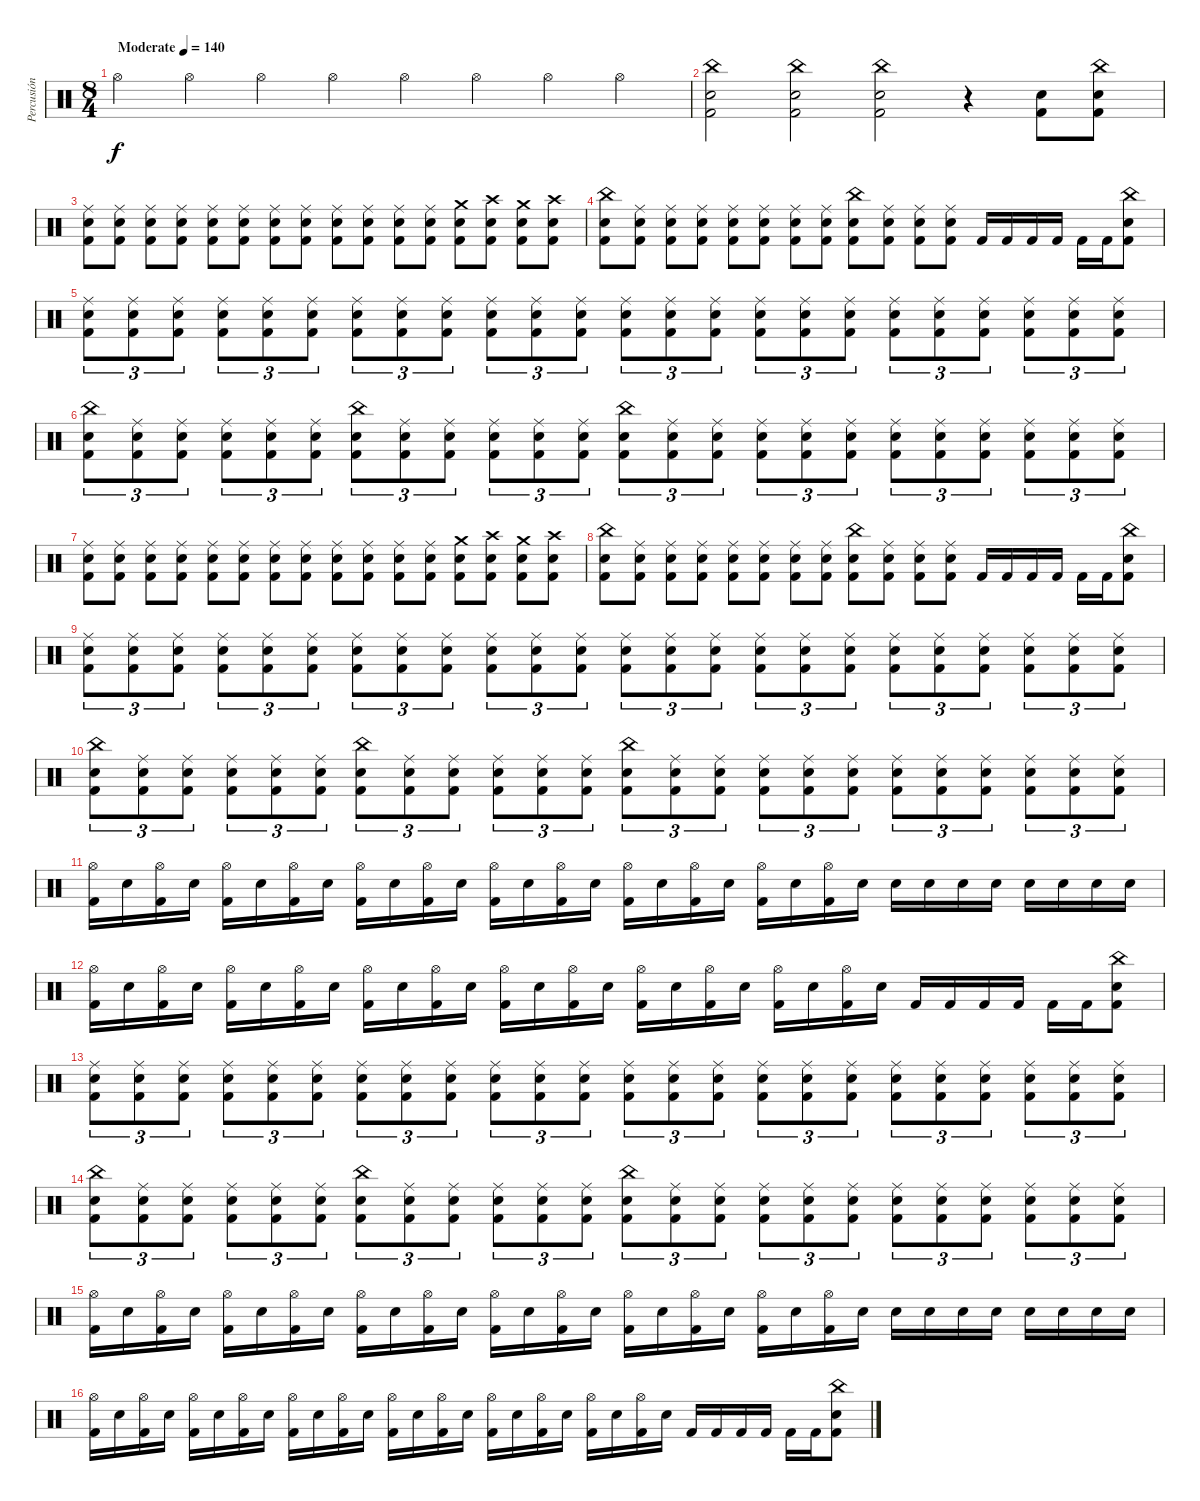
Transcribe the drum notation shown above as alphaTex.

\track ("Percusión" "Percusión") {instrument percussion}
\staff {score}
\articulation defaults
\ts (8 4)
\tempo (140 "Moderate")
\clef neutral
\ks c "Hi-Hat (open)".4{dy f} "Hi-Hat (open)".4 "Hi-Hat (open)".4 "Hi-Hat (open)".4 "Hi-Hat (open)".4 "Hi-Hat (open)".4 "Hi-Hat (open)".4 "Hi-Hat (open)".4
|
("China (hit)" "Electric Snare (hit)" "Kick (hit) 2").2 ("China (hit)" "Electric Snare (hit)" "Kick (hit) 2").2 ("China (hit)" "Electric Snare (hit)" "Kick (hit) 2").2 r.4 ("Electric Snare (hit)" "Kick (hit) 2").8 ("China (hit)" "Electric Snare (hit)" "Kick (hit) 2").8 |
("Ride (middle)" "Electric Snare (hit)" "Kick (hit) 2").8 ("Ride (middle)" "Electric Snare (hit)" "Kick (hit) 2").8 ("Ride (middle)" "Electric Snare (hit)" "Kick (hit) 2").8 ("Ride (middle)" "Electric Snare (hit)" "Kick (hit) 2").8 ("Ride (middle)" "Electric Snare (hit)" "Kick (hit) 2").8 ("Ride (middle)" "Electric Snare (hit)" "Kick (hit) 2").8 ("Ride (middle)" "Electric Snare (hit)" "Kick (hit) 2").8 ("Ride (middle)" "Electric Snare (hit)" "Kick (hit) 2").8 ("Ride (middle)" "Electric Snare (hit)" "Kick (hit) 2").8 ("Ride (middle)" "Electric Snare (hit)" "Kick (hit) 2").8 ("Ride (middle)" "Electric Snare (hit)" "Kick (hit) 2").8 ("Ride (middle)" "Electric Snare (hit)" "Kick (hit) 2").8 ("Crash medium (hit)" "Electric Snare (hit)" "Kick (hit) 2").8 ("Crash high (hit)" "Electric Snare (hit)" "Kick (hit) 2").8 ("Crash medium (hit)" "Electric Snare (hit)" "Kick (hit) 2").8 ("Crash high (hit)" "Electric Snare (hit)" "Kick (hit) 2").8 |
("China (hit)" "Electric Snare (hit)" "Kick (hit) 2").8 ("Ride (middle)" "Electric Snare (hit)" "Kick (hit) 2").8 ("Ride (middle)" "Electric Snare (hit)" "Kick (hit) 2").8 ("Ride (middle)" "Electric Snare (hit)" "Kick (hit) 2").8 ("Ride (middle)" "Electric Snare (hit)" "Kick (hit) 2").8 ("Ride (middle)" "Electric Snare (hit)" "Kick (hit) 2").8 ("Ride (middle)" "Electric Snare (hit)" "Kick (hit) 2").8 ("Ride (middle)" "Electric Snare (hit)" "Kick (hit) 2").8 ("China (hit)" "Electric Snare (hit)" "Kick (hit) 2").8 ("Ride (middle)" "Electric Snare (hit)" "Kick (hit) 2").8 ("Ride (middle)" "Electric Snare (hit)" "Kick (hit) 2").8 ("Ride (middle)" "Electric Snare (hit)" "Kick (hit) 2").8 "Kick (hit) 2".16 "Kick (hit) 2".16 "Kick (hit) 2".16 "Kick (hit) 2".16 "Kick (hit) 2".16 "Kick (hit) 2".16 ("China (hit)" "Electric Snare (hit)" "Kick (hit) 2").8 |
("Ride (middle)" "Electric Snare (hit)" "Kick (hit) 2").8{tu (3 2)} ("Ride (middle)" "Electric Snare (hit)" "Kick (hit) 2").8{tu (3 2)} ("Ride (middle)" "Electric Snare (hit)" "Kick (hit) 2").8{tu (3 2)} ("Ride (middle)" "Electric Snare (hit)" "Kick (hit) 2").8{tu (3 2)} ("Ride (middle)" "Electric Snare (hit)" "Kick (hit) 2").8{tu (3 2)} ("Ride (middle)" "Electric Snare (hit)" "Kick (hit) 2").8{tu (3 2)} ("Ride (middle)" "Electric Snare (hit)" "Kick (hit) 2").8{tu (3 2)} ("Ride (middle)" "Electric Snare (hit)" "Kick (hit) 2").8{tu (3 2)} ("Ride (middle)" "Electric Snare (hit)" "Kick (hit) 2").8{tu (3 2)} ("Ride (middle)" "Electric Snare (hit)" "Kick (hit) 2").8{tu (3 2)} ("Ride (middle)" "Electric Snare (hit)" "Kick (hit) 2").8{tu (3 2)} ("Ride (middle)" "Electric Snare (hit)" "Kick (hit) 2").8{tu (3 2)} ("Ride (middle)" "Electric Snare (hit)" "Kick (hit) 2").8{tu (3 2)} ("Ride (middle)" "Electric Snare (hit)" "Kick (hit) 2").8{tu (3 2)} ("Ride (middle)" "Electric Snare (hit)" "Kick (hit) 2").8{tu (3 2)} ("Ride (middle)" "Electric Snare (hit)" "Kick (hit) 2").8{tu (3 2)} ("Ride (middle)" "Electric Snare (hit)" "Kick (hit) 2").8{tu (3 2)} ("Ride (middle)" "Electric Snare (hit)" "Kick (hit) 2").8{tu (3 2)} ("Ride (middle)" "Electric Snare (hit)" "Kick (hit) 2").8{tu (3 2)} ("Ride (middle)" "Electric Snare (hit)" "Kick (hit) 2").8{tu (3 2)} ("Ride (middle)" "Electric Snare (hit)" "Kick (hit) 2").8{tu (3 2)} ("Ride (middle)" "Electric Snare (hit)" "Kick (hit) 2").8{tu (3 2)} ("Ride (middle)" "Electric Snare (hit)" "Kick (hit) 2").8{tu (3 2)} ("Ride (middle)" "Electric Snare (hit)" "Kick (hit) 2").8{tu (3 2)} |
("China (hit)" "Electric Snare (hit)" "Kick (hit) 2").8{tu (3 2)} ("Ride (middle)" "Electric Snare (hit)" "Kick (hit) 2").8{tu (3 2)} ("Ride (middle)" "Electric Snare (hit)" "Kick (hit) 2").8{tu (3 2)} ("Ride (middle)" "Electric Snare (hit)" "Kick (hit) 2").8{tu (3 2)} ("Ride (middle)" "Electric Snare (hit)" "Kick (hit) 2").8{tu (3 2)} ("Ride (middle)" "Electric Snare (hit)" "Kick (hit) 2").8{tu (3 2)} ("China (hit)" "Electric Snare (hit)" "Kick (hit) 2").8{tu (3 2)} ("Ride (middle)" "Electric Snare (hit)" "Kick (hit) 2").8{tu (3 2)} ("Ride (middle)" "Electric Snare (hit)" "Kick (hit) 2").8{tu (3 2)} ("Ride (middle)" "Electric Snare (hit)" "Kick (hit) 2").8{tu (3 2)} ("Ride (middle)" "Electric Snare (hit)" "Kick (hit) 2").8{tu (3 2)} ("Ride (middle)" "Electric Snare (hit)" "Kick (hit) 2").8{tu (3 2)} ("China (hit)" "Electric Snare (hit)" "Kick (hit) 2").8{tu (3 2)} ("Ride (middle)" "Electric Snare (hit)" "Kick (hit) 2").8{tu (3 2)} ("Ride (middle)" "Electric Snare (hit)" "Kick (hit) 2").8{tu (3 2)} ("Ride (middle)" "Electric Snare (hit)" "Kick (hit) 2").8{tu (3 2)} ("Ride (middle)" "Electric Snare (hit)" "Kick (hit) 2").8{tu (3 2)} ("Ride (middle)" "Electric Snare (hit)" "Kick (hit) 2").8{tu (3 2)} ("Ride (middle)" "Electric Snare (hit)" "Kick (hit) 2").8{tu (3 2)} ("Ride (middle)" "Electric Snare (hit)" "Kick (hit) 2").8{tu (3 2)} ("Ride (middle)" "Electric Snare (hit)" "Kick (hit) 2").8{tu (3 2)} ("Ride (middle)" "Electric Snare (hit)" "Kick (hit) 2").8{tu (3 2)} ("Ride (middle)" "Electric Snare (hit)" "Kick (hit) 2").8{tu (3 2)} ("Ride (middle)" "Electric Snare (hit)" "Kick (hit) 2").8{tu (3 2)} |
("Ride (middle)" "Electric Snare (hit)" "Kick (hit) 2").8 ("Ride (middle)" "Electric Snare (hit)" "Kick (hit) 2").8 ("Ride (middle)" "Electric Snare (hit)" "Kick (hit) 2").8 ("Ride (middle)" "Electric Snare (hit)" "Kick (hit) 2").8 ("Ride (middle)" "Electric Snare (hit)" "Kick (hit) 2").8 ("Ride (middle)" "Electric Snare (hit)" "Kick (hit) 2").8 ("Ride (middle)" "Electric Snare (hit)" "Kick (hit) 2").8 ("Ride (middle)" "Electric Snare (hit)" "Kick (hit) 2").8 ("Ride (middle)" "Electric Snare (hit)" "Kick (hit) 2").8 ("Ride (middle)" "Electric Snare (hit)" "Kick (hit) 2").8 ("Ride (middle)" "Electric Snare (hit)" "Kick (hit) 2").8 ("Ride (middle)" "Electric Snare (hit)" "Kick (hit) 2").8 ("Crash medium (hit)" "Electric Snare (hit)" "Kick (hit) 2").8 ("Crash high (hit)" "Electric Snare (hit)" "Kick (hit) 2").8 ("Crash medium (hit)" "Electric Snare (hit)" "Kick (hit) 2").8 ("Crash high (hit)" "Electric Snare (hit)" "Kick (hit) 2").8 |
("China (hit)" "Electric Snare (hit)" "Kick (hit) 2").8 ("Ride (middle)" "Electric Snare (hit)" "Kick (hit) 2").8 ("Ride (middle)" "Electric Snare (hit)" "Kick (hit) 2").8 ("Ride (middle)" "Electric Snare (hit)" "Kick (hit) 2").8 ("Ride (middle)" "Electric Snare (hit)" "Kick (hit) 2").8 ("Ride (middle)" "Electric Snare (hit)" "Kick (hit) 2").8 ("Ride (middle)" "Electric Snare (hit)" "Kick (hit) 2").8 ("Ride (middle)" "Electric Snare (hit)" "Kick (hit) 2").8 ("China (hit)" "Electric Snare (hit)" "Kick (hit) 2").8 ("Ride (middle)" "Electric Snare (hit)" "Kick (hit) 2").8 ("Ride (middle)" "Electric Snare (hit)" "Kick (hit) 2").8 ("Ride (middle)" "Electric Snare (hit)" "Kick (hit) 2").8 "Kick (hit) 2".16 "Kick (hit) 2".16 "Kick (hit) 2".16 "Kick (hit) 2".16 "Kick (hit) 2".16 "Kick (hit) 2".16 ("China (hit)" "Electric Snare (hit)" "Kick (hit) 2").8 |
("Ride (middle)" "Electric Snare (hit)" "Kick (hit) 2").8{tu (3 2)} ("Ride (middle)" "Electric Snare (hit)" "Kick (hit) 2").8{tu (3 2)} ("Ride (middle)" "Electric Snare (hit)" "Kick (hit) 2").8{tu (3 2)} ("Ride (middle)" "Electric Snare (hit)" "Kick (hit) 2").8{tu (3 2)} ("Ride (middle)" "Electric Snare (hit)" "Kick (hit) 2").8{tu (3 2)} ("Ride (middle)" "Electric Snare (hit)" "Kick (hit) 2").8{tu (3 2)} ("Ride (middle)" "Electric Snare (hit)" "Kick (hit) 2").8{tu (3 2)} ("Ride (middle)" "Electric Snare (hit)" "Kick (hit) 2").8{tu (3 2)} ("Ride (middle)" "Electric Snare (hit)" "Kick (hit) 2").8{tu (3 2)} ("Ride (middle)" "Electric Snare (hit)" "Kick (hit) 2").8{tu (3 2)} ("Ride (middle)" "Electric Snare (hit)" "Kick (hit) 2").8{tu (3 2)} ("Ride (middle)" "Electric Snare (hit)" "Kick (hit) 2").8{tu (3 2)} ("Ride (middle)" "Electric Snare (hit)" "Kick (hit) 2").8{tu (3 2)} ("Ride (middle)" "Electric Snare (hit)" "Kick (hit) 2").8{tu (3 2)} ("Ride (middle)" "Electric Snare (hit)" "Kick (hit) 2").8{tu (3 2)} ("Ride (middle)" "Electric Snare (hit)" "Kick (hit) 2").8{tu (3 2)} ("Ride (middle)" "Electric Snare (hit)" "Kick (hit) 2").8{tu (3 2)} ("Ride (middle)" "Electric Snare (hit)" "Kick (hit) 2").8{tu (3 2)} ("Ride (middle)" "Electric Snare (hit)" "Kick (hit) 2").8{tu (3 2)} ("Ride (middle)" "Electric Snare (hit)" "Kick (hit) 2").8{tu (3 2)} ("Ride (middle)" "Electric Snare (hit)" "Kick (hit) 2").8{tu (3 2)} ("Ride (middle)" "Electric Snare (hit)" "Kick (hit) 2").8{tu (3 2)} ("Ride (middle)" "Electric Snare (hit)" "Kick (hit) 2").8{tu (3 2)} ("Ride (middle)" "Electric Snare (hit)" "Kick (hit) 2").8{tu (3 2)} |
("China (hit)" "Electric Snare (hit)" "Kick (hit) 2").8{tu (3 2)} ("Ride (middle)" "Electric Snare (hit)" "Kick (hit) 2").8{tu (3 2)} ("Ride (middle)" "Electric Snare (hit)" "Kick (hit) 2").8{tu (3 2)} ("Ride (middle)" "Electric Snare (hit)" "Kick (hit) 2").8{tu (3 2)} ("Ride (middle)" "Electric Snare (hit)" "Kick (hit) 2").8{tu (3 2)} ("Ride (middle)" "Electric Snare (hit)" "Kick (hit) 2").8{tu (3 2)} ("China (hit)" "Electric Snare (hit)" "Kick (hit) 2").8{tu (3 2)} ("Ride (middle)" "Electric Snare (hit)" "Kick (hit) 2").8{tu (3 2)} ("Ride (middle)" "Electric Snare (hit)" "Kick (hit) 2").8{tu (3 2)} ("Ride (middle)" "Electric Snare (hit)" "Kick (hit) 2").8{tu (3 2)} ("Ride (middle)" "Electric Snare (hit)" "Kick (hit) 2").8{tu (3 2)} ("Ride (middle)" "Electric Snare (hit)" "Kick (hit) 2").8{tu (3 2)} ("China (hit)" "Electric Snare (hit)" "Kick (hit) 2").8{tu (3 2)} ("Ride (middle)" "Electric Snare (hit)" "Kick (hit) 2").8{tu (3 2)} ("Ride (middle)" "Electric Snare (hit)" "Kick (hit) 2").8{tu (3 2)} ("Ride (middle)" "Electric Snare (hit)" "Kick (hit) 2").8{tu (3 2)} ("Ride (middle)" "Electric Snare (hit)" "Kick (hit) 2").8{tu (3 2)} ("Ride (middle)" "Electric Snare (hit)" "Kick (hit) 2").8{tu (3 2)} ("Ride (middle)" "Electric Snare (hit)" "Kick (hit) 2").8{tu (3 2)} ("Ride (middle)" "Electric Snare (hit)" "Kick (hit) 2").8{tu (3 2)} ("Ride (middle)" "Electric Snare (hit)" "Kick (hit) 2").8{tu (3 2)} ("Ride (middle)" "Electric Snare (hit)" "Kick (hit) 2").8{tu (3 2)} ("Ride (middle)" "Electric Snare (hit)" "Kick (hit) 2").8{tu (3 2)} ("Ride (middle)" "Electric Snare (hit)" "Kick (hit) 2").8{tu (3 2)} |
("Hi-Hat (open)" "Kick (hit) 2").16 "Electric Snare (hit)".16 ("Hi-Hat (open)" "Kick (hit) 2").16 "Electric Snare (hit)".16 ("Hi-Hat (open)" "Kick (hit) 2").16 "Electric Snare (hit)".16 ("Hi-Hat (open)" "Kick (hit) 2").16 "Electric Snare (hit)".16 ("Hi-Hat (open)" "Kick (hit) 2").16 "Electric Snare (hit)".16 ("Hi-Hat (open)" "Kick (hit) 2").16 "Electric Snare (hit)".16 ("Hi-Hat (open)" "Kick (hit) 2").16 "Electric Snare (hit)".16 ("Hi-Hat (open)" "Kick (hit) 2").16 "Electric Snare (hit)".16 ("Hi-Hat (open)" "Kick (hit) 2").16 "Electric Snare (hit)".16 ("Hi-Hat (open)" "Kick (hit) 2").16 "Electric Snare (hit)".16 ("Hi-Hat (open)" "Kick (hit) 2").16 "Electric Snare (hit)".16 ("Hi-Hat (open)" "Kick (hit) 2").16 "Electric Snare (hit)".16 "Electric Snare (hit)".16 "Electric Snare (hit)".16 "Electric Snare (hit)".16 "Electric Snare (hit)".16 "Electric Snare (hit)".16 "Electric Snare (hit)".16 "Electric Snare (hit)".16 "Electric Snare (hit)".16 |
("Hi-Hat (open)" "Kick (hit) 2").16 "Electric Snare (hit)".16 ("Hi-Hat (open)" "Kick (hit) 2").16 "Electric Snare (hit)".16 ("Hi-Hat (open)" "Kick (hit) 2").16 "Electric Snare (hit)".16 ("Hi-Hat (open)" "Kick (hit) 2").16 "Electric Snare (hit)".16 ("Hi-Hat (open)" "Kick (hit) 2").16 "Electric Snare (hit)".16 ("Hi-Hat (open)" "Kick (hit) 2").16 "Electric Snare (hit)".16 ("Hi-Hat (open)" "Kick (hit) 2").16 "Electric Snare (hit)".16 ("Hi-Hat (open)" "Kick (hit) 2").16 "Electric Snare (hit)".16 ("Hi-Hat (open)" "Kick (hit) 2").16 "Electric Snare (hit)".16 ("Hi-Hat (open)" "Kick (hit) 2").16 "Electric Snare (hit)".16 ("Hi-Hat (open)" "Kick (hit) 2").16 "Electric Snare (hit)".16 ("Hi-Hat (open)" "Kick (hit) 2").16 "Electric Snare (hit)".16 "Kick (hit) 2".16 "Kick (hit) 2".16 "Kick (hit) 2".16 "Kick (hit) 2".16 "Kick (hit) 2".16 "Kick (hit) 2".16 ("China (hit)" "Electric Snare (hit)" "Kick (hit) 2").8 |
("Ride (middle)" "Electric Snare (hit)" "Kick (hit) 2").8{tu (3 2)} ("Ride (middle)" "Electric Snare (hit)" "Kick (hit) 2").8{tu (3 2)} ("Ride (middle)" "Electric Snare (hit)" "Kick (hit) 2").8{tu (3 2)} ("Ride (middle)" "Electric Snare (hit)" "Kick (hit) 2").8{tu (3 2)} ("Ride (middle)" "Electric Snare (hit)" "Kick (hit) 2").8{tu (3 2)} ("Ride (middle)" "Electric Snare (hit)" "Kick (hit) 2").8{tu (3 2)} ("Ride (middle)" "Electric Snare (hit)" "Kick (hit) 2").8{tu (3 2)} ("Ride (middle)" "Electric Snare (hit)" "Kick (hit) 2").8{tu (3 2)} ("Ride (middle)" "Electric Snare (hit)" "Kick (hit) 2").8{tu (3 2)} ("Ride (middle)" "Electric Snare (hit)" "Kick (hit) 2").8{tu (3 2)} ("Ride (middle)" "Electric Snare (hit)" "Kick (hit) 2").8{tu (3 2)} ("Ride (middle)" "Electric Snare (hit)" "Kick (hit) 2").8{tu (3 2)} ("Ride (middle)" "Electric Snare (hit)" "Kick (hit) 2").8{tu (3 2)} ("Ride (middle)" "Electric Snare (hit)" "Kick (hit) 2").8{tu (3 2)} ("Ride (middle)" "Electric Snare (hit)" "Kick (hit) 2").8{tu (3 2)} ("Ride (middle)" "Electric Snare (hit)" "Kick (hit) 2").8{tu (3 2)} ("Ride (middle)" "Electric Snare (hit)" "Kick (hit) 2").8{tu (3 2)} ("Ride (middle)" "Electric Snare (hit)" "Kick (hit) 2").8{tu (3 2)} ("Ride (middle)" "Electric Snare (hit)" "Kick (hit) 2").8{tu (3 2)} ("Ride (middle)" "Electric Snare (hit)" "Kick (hit) 2").8{tu (3 2)} ("Ride (middle)" "Electric Snare (hit)" "Kick (hit) 2").8{tu (3 2)} ("Ride (middle)" "Electric Snare (hit)" "Kick (hit) 2").8{tu (3 2)} ("Ride (middle)" "Electric Snare (hit)" "Kick (hit) 2").8{tu (3 2)} ("Ride (middle)" "Electric Snare (hit)" "Kick (hit) 2").8{tu (3 2)} |
("China (hit)" "Electric Snare (hit)" "Kick (hit) 2").8{tu (3 2)} ("Ride (middle)" "Electric Snare (hit)" "Kick (hit) 2").8{tu (3 2)} ("Ride (middle)" "Electric Snare (hit)" "Kick (hit) 2").8{tu (3 2)} ("Ride (middle)" "Electric Snare (hit)" "Kick (hit) 2").8{tu (3 2)} ("Ride (middle)" "Electric Snare (hit)" "Kick (hit) 2").8{tu (3 2)} ("Ride (middle)" "Electric Snare (hit)" "Kick (hit) 2").8{tu (3 2)} ("China (hit)" "Electric Snare (hit)" "Kick (hit) 2").8{tu (3 2)} ("Ride (middle)" "Electric Snare (hit)" "Kick (hit) 2").8{tu (3 2)} ("Ride (middle)" "Electric Snare (hit)" "Kick (hit) 2").8{tu (3 2)} ("Ride (middle)" "Electric Snare (hit)" "Kick (hit) 2").8{tu (3 2)} ("Ride (middle)" "Electric Snare (hit)" "Kick (hit) 2").8{tu (3 2)} ("Ride (middle)" "Electric Snare (hit)" "Kick (hit) 2").8{tu (3 2)} ("China (hit)" "Electric Snare (hit)" "Kick (hit) 2").8{tu (3 2)} ("Ride (middle)" "Electric Snare (hit)" "Kick (hit) 2").8{tu (3 2)} ("Ride (middle)" "Electric Snare (hit)" "Kick (hit) 2").8{tu (3 2)} ("Ride (middle)" "Electric Snare (hit)" "Kick (hit) 2").8{tu (3 2)} ("Ride (middle)" "Electric Snare (hit)" "Kick (hit) 2").8{tu (3 2)} ("Ride (middle)" "Electric Snare (hit)" "Kick (hit) 2").8{tu (3 2)} ("Ride (middle)" "Electric Snare (hit)" "Kick (hit) 2").8{tu (3 2)} ("Ride (middle)" "Electric Snare (hit)" "Kick (hit) 2").8{tu (3 2)} ("Ride (middle)" "Electric Snare (hit)" "Kick (hit) 2").8{tu (3 2)} ("Ride (middle)" "Electric Snare (hit)" "Kick (hit) 2").8{tu (3 2)} ("Ride (middle)" "Electric Snare (hit)" "Kick (hit) 2").8{tu (3 2)} ("Ride (middle)" "Electric Snare (hit)" "Kick (hit) 2").8{tu (3 2)} |
("Hi-Hat (open)" "Kick (hit) 2").16 "Electric Snare (hit)".16 ("Hi-Hat (open)" "Kick (hit) 2").16 "Electric Snare (hit)".16 ("Hi-Hat (open)" "Kick (hit) 2").16 "Electric Snare (hit)".16 ("Hi-Hat (open)" "Kick (hit) 2").16 "Electric Snare (hit)".16 ("Hi-Hat (open)" "Kick (hit) 2").16 "Electric Snare (hit)".16 ("Hi-Hat (open)" "Kick (hit) 2").16 "Electric Snare (hit)".16 ("Hi-Hat (open)" "Kick (hit) 2").16 "Electric Snare (hit)".16 ("Hi-Hat (open)" "Kick (hit) 2").16 "Electric Snare (hit)".16 ("Hi-Hat (open)" "Kick (hit) 2").16 "Electric Snare (hit)".16 ("Hi-Hat (open)" "Kick (hit) 2").16 "Electric Snare (hit)".16 ("Hi-Hat (open)" "Kick (hit) 2").16 "Electric Snare (hit)".16 ("Hi-Hat (open)" "Kick (hit) 2").16 "Electric Snare (hit)".16 "Electric Snare (hit)".16 "Electric Snare (hit)".16 "Electric Snare (hit)".16 "Electric Snare (hit)".16 "Electric Snare (hit)".16 "Electric Snare (hit)".16 "Electric Snare (hit)".16 "Electric Snare (hit)".16 |
("Hi-Hat (open)" "Kick (hit) 2").16 "Electric Snare (hit)".16 ("Hi-Hat (open)" "Kick (hit) 2").16 "Electric Snare (hit)".16 ("Hi-Hat (open)" "Kick (hit) 2").16 "Electric Snare (hit)".16 ("Hi-Hat (open)" "Kick (hit) 2").16 "Electric Snare (hit)".16 ("Hi-Hat (open)" "Kick (hit) 2").16 "Electric Snare (hit)".16 ("Hi-Hat (open)" "Kick (hit) 2").16 "Electric Snare (hit)".16 ("Hi-Hat (open)" "Kick (hit) 2").16 "Electric Snare (hit)".16 ("Hi-Hat (open)" "Kick (hit) 2").16 "Electric Snare (hit)".16 ("Hi-Hat (open)" "Kick (hit) 2").16 "Electric Snare (hit)".16 ("Hi-Hat (open)" "Kick (hit) 2").16 "Electric Snare (hit)".16 ("Hi-Hat (open)" "Kick (hit) 2").16 "Electric Snare (hit)".16 ("Hi-Hat (open)" "Kick (hit) 2").16 "Electric Snare (hit)".16 "Kick (hit) 2".16 "Kick (hit) 2".16 "Kick (hit) 2".16 "Kick (hit) 2".16 "Kick (hit) 2".16 "Kick (hit) 2".16 ("China (hit)" "Electric Snare (hit)" "Kick (hit) 2").8
